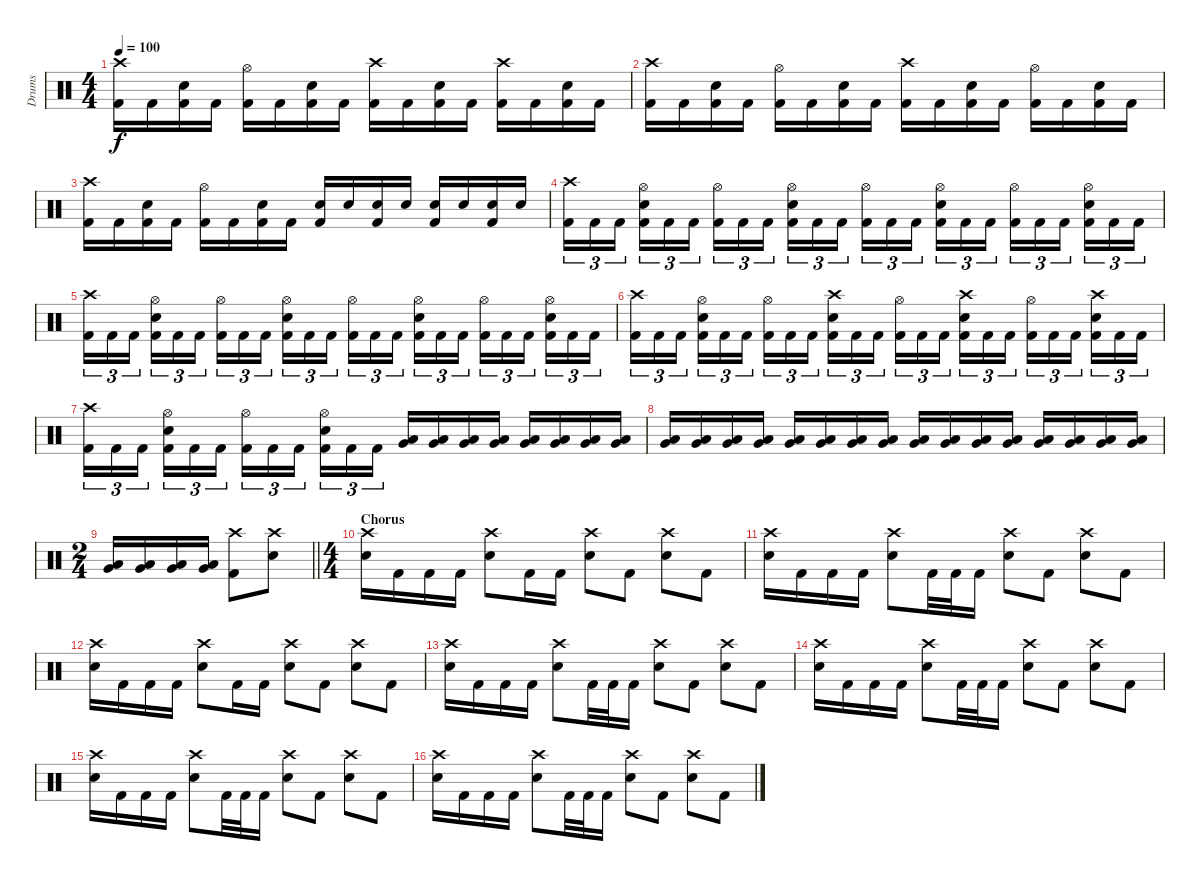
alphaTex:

\track ("Drums" "Drums") {instrument percussion}
\staff {score}
\articulation defaults
\ts (4 4)
\tempo 100
\clef neutral
\ks c
("Crash high (hit)" "Kick (hit) 2").16{dy f} "Kick (hit) 2".16 ("Snare (hit) 2" "Kick (hit) 2").16 "Kick (hit) 2".16 ("Hi-Hat (open)" "Kick (hit) 2").16 "Kick (hit) 2".16 ("Snare (hit) 2" "Kick (hit) 2").16 "Kick (hit) 2".16 ("Crash high (hit)" "Kick (hit) 2").16 "Kick (hit) 2".16 ("Snare (hit) 2" "Kick (hit) 2").16 "Kick (hit) 2".16 ("Crash high (hit)" "Kick (hit) 2").16 "Kick (hit) 2".16 ("Snare (hit) 2" "Kick (hit) 2").16 "Kick (hit) 2".16 |
("Crash high (hit)" "Kick (hit) 2").16 "Kick (hit) 2".16 ("Snare (hit) 2" "Kick (hit) 2").16 "Kick (hit) 2".16 ("Hi-Hat (open)" "Kick (hit) 2").16 "Kick (hit) 2".16 ("Snare (hit) 2" "Kick (hit) 2").16 "Kick (hit) 2".16 ("Crash high (hit)" "Kick (hit) 2").16 "Kick (hit) 2".16 ("Snare (hit) 2" "Kick (hit) 2").16 "Kick (hit) 2".16 ("Hi-Hat (open)" "Kick (hit) 2").16 "Kick (hit) 2".16 ("Snare (hit) 2" "Kick (hit) 2").16 "Kick (hit) 2".16 |
("Crash high (hit)" "Kick (hit) 2").16 "Kick (hit) 2".16 ("Snare (hit) 2" "Kick (hit) 2").16 "Kick (hit) 2".16 ("Hi-Hat (open)" "Kick (hit) 2").16 "Kick (hit) 2".16 ("Snare (hit) 2" "Kick (hit) 2").16 "Kick (hit) 2".16 ("Snare (hit) 2" "Kick (hit) 2").16 "Snare (hit) 2".16 ("Snare (hit) 2" "Kick (hit) 2").16 "Snare (hit) 2".16 ("Snare (hit) 2" "Kick (hit) 2").16 "Snare (hit) 2".16 ("Snare (hit) 2" "Kick (hit) 2").16 "Snare (hit) 2".16 |
("Crash high (hit)" "Kick (hit) 2").16{tu (3 2)} "Kick (hit) 2".16{tu (3 2)} "Kick (hit) 2".16{tu (3 2) beam splitsecondary} ("Hi-Hat (open)" "Snare (hit) 2" "Kick (hit) 2").16{tu (3 2)} "Kick (hit) 2".16{tu (3 2)} "Kick (hit) 2".16{tu (3 2)} ("Hi-Hat (open)" "Kick (hit) 2").16{tu (3 2)} "Kick (hit) 2".16{tu (3 2)} "Kick (hit) 2".16{tu (3 2) beam splitsecondary} ("Hi-Hat (open)" "Snare (hit) 2" "Kick (hit) 2").16{tu (3 2)} "Kick (hit) 2".16{tu (3 2)} "Kick (hit) 2".16{tu (3 2)} ("Hi-Hat (open)" "Kick (hit) 2").16{tu (3 2)} "Kick (hit) 2".16{tu (3 2)} "Kick (hit) 2".16{tu (3 2) beam splitsecondary} ("Hi-Hat (open)" "Snare (hit) 2" "Kick (hit) 2").16{tu (3 2)} "Kick (hit) 2".16{tu (3 2)} "Kick (hit) 2".16{tu (3 2)} ("Hi-Hat (open)" "Kick (hit) 2").16{tu (3 2)} "Kick (hit) 2".16{tu (3 2)} "Kick (hit) 2".16{tu (3 2) beam splitsecondary} ("Hi-Hat (open)" "Snare (hit) 2" "Kick (hit) 2").16{tu (3 2)} "Kick (hit) 2".16{tu (3 2)} "Kick (hit) 2".16{tu (3 2)} |
("Crash high (hit)" "Kick (hit) 2").16{tu (3 2)} "Kick (hit) 2".16{tu (3 2)} "Kick (hit) 2".16{tu (3 2) beam splitsecondary} ("Hi-Hat (open)" "Snare (hit) 2" "Kick (hit) 2").16{tu (3 2)} "Kick (hit) 2".16{tu (3 2)} "Kick (hit) 2".16{tu (3 2)} ("Hi-Hat (open)" "Kick (hit) 2").16{tu (3 2)} "Kick (hit) 2".16{tu (3 2)} "Kick (hit) 2".16{tu (3 2) beam splitsecondary} ("Hi-Hat (open)" "Snare (hit) 2" "Kick (hit) 2").16{tu (3 2)} "Kick (hit) 2".16{tu (3 2)} "Kick (hit) 2".16{tu (3 2)} ("Hi-Hat (open)" "Kick (hit) 2").16{tu (3 2)} "Kick (hit) 2".16{tu (3 2)} "Kick (hit) 2".16{tu (3 2) beam splitsecondary} ("Hi-Hat (open)" "Snare (hit) 2" "Kick (hit) 2").16{tu (3 2)} "Kick (hit) 2".16{tu (3 2)} "Kick (hit) 2".16{tu (3 2)} ("Hi-Hat (open)" "Kick (hit) 2").16{tu (3 2)} "Kick (hit) 2".16{tu (3 2)} "Kick (hit) 2".16{tu (3 2) beam splitsecondary} ("Hi-Hat (open)" "Snare (hit) 2" "Kick (hit) 2").16{tu (3 2)} "Kick (hit) 2".16{tu (3 2)} "Kick (hit) 2".16{tu (3 2)} |
("Crash high (hit)" "Kick (hit) 2").16{tu (3 2)} "Kick (hit) 2".16{tu (3 2)} "Kick (hit) 2".16{tu (3 2) beam splitsecondary} ("Hi-Hat (open)" "Snare (hit) 2" "Kick (hit) 2").16{tu (3 2)} "Kick (hit) 2".16{tu (3 2)} "Kick (hit) 2".16{tu (3 2)} ("Hi-Hat (open)" "Kick (hit) 2").16{tu (3 2)} "Kick (hit) 2".16{tu (3 2)} "Kick (hit) 2".16{tu (3 2) beam splitsecondary} ("Crash high (hit)" "Snare (hit) 2" "Kick (hit) 2").16{tu (3 2)} "Kick (hit) 2".16{tu (3 2)} "Kick (hit) 2".16{tu (3 2)} ("Hi-Hat (open)" "Kick (hit) 2").16{tu (3 2)} "Kick (hit) 2".16{tu (3 2)} "Kick (hit) 2".16{tu (3 2) beam splitsecondary} ("Crash high (hit)" "Snare (hit) 2" "Kick (hit) 2").16{tu (3 2)} "Kick (hit) 2".16{tu (3 2)} "Kick (hit) 2".16{tu (3 2)} ("Hi-Hat (open)" "Kick (hit) 2").16{tu (3 2)} "Kick (hit) 2".16{tu (3 2)} "Kick (hit) 2".16{tu (3 2) beam splitsecondary} ("Crash high (hit)" "Snare (hit) 2" "Kick (hit) 2").16{tu (3 2)} "Kick (hit) 2".16{tu (3 2)} "Kick (hit) 2".16{tu (3 2)} |
("Crash high (hit)" "Kick (hit) 2").16{tu (3 2)} "Kick (hit) 2".16{tu (3 2)} "Kick (hit) 2".16{tu (3 2) beam splitsecondary} ("Hi-Hat (open)" "Snare (hit) 2" "Kick (hit) 2").16{tu (3 2)} "Kick (hit) 2".16{tu (3 2)} "Kick (hit) 2".16{tu (3 2)} ("Hi-Hat (open)" "Kick (hit) 2").16{tu (3 2)} "Kick (hit) 2".16{tu (3 2)} "Kick (hit) 2".16{tu (3 2) beam splitsecondary} ("Hi-Hat (open)" "Snare (hit) 2" "Kick (hit) 2").16{tu (3 2)} "Kick (hit) 2".16{tu (3 2)} "Kick (hit) 2".16{tu (3 2)} ("Low Tom (hit)" "Very Low Tom (hit)").16 ("Low Tom (hit)" "Very Low Tom (hit)").16 ("Low Tom (hit)" "Very Low Tom (hit)").16 ("Low Tom (hit)" "Very Low Tom (hit)").16 ("Low Tom (hit)" "Very Low Tom (hit)").16 ("Low Tom (hit)" "Very Low Tom (hit)").16 ("Low Tom (hit)" "Very Low Tom (hit)").16 ("Low Tom (hit)" "Very Low Tom (hit)").16 |
("Low Tom (hit)" "Very Low Tom (hit)").16 ("Low Tom (hit)" "Very Low Tom (hit)").16 ("Low Tom (hit)" "Very Low Tom (hit)").16 ("Low Tom (hit)" "Very Low Tom (hit)").16 ("Low Tom (hit)" "Very Low Tom (hit)").16 ("Low Tom (hit)" "Very Low Tom (hit)").16 ("Low Tom (hit)" "Very Low Tom (hit)").16 ("Low Tom (hit)" "Very Low Tom (hit)").16 ("Low Tom (hit)" "Very Low Tom (hit)").16 ("Low Tom (hit)" "Very Low Tom (hit)").16 ("Low Tom (hit)" "Very Low Tom (hit)").16 ("Low Tom (hit)" "Very Low Tom (hit)").16 ("Low Tom (hit)" "Very Low Tom (hit)").16 ("Low Tom (hit)" "Very Low Tom (hit)").16 ("Low Tom (hit)" "Very Low Tom (hit)").16 ("Low Tom (hit)" "Very Low Tom (hit)").16 |
\ts (2 4)
\barLineRight lightlight
("Low Tom (hit)" "Very Low Tom (hit)").16 ("Low Tom (hit)" "Very Low Tom (hit)").16 ("Low Tom (hit)" "Very Low Tom (hit)").16 ("Low Tom (hit)" "Very Low Tom (hit)").16 ("Crash high (hit)" "Kick (hit) 2").8 ("Crash high (hit)" "Snare (hit)").8 |
\ts (4 4)
\section ("" "Chorus")
("Crash high (hit)" "Snare (hit) 2").16 "Kick (hit) 2".16 "Kick (hit) 2".16 "Kick (hit) 2".16 ("Crash high (hit)" "Snare (hit) 2").8 "Kick (hit) 2".16 "Kick (hit) 2".16 ("Crash high (hit)" "Snare (hit) 2").8 "Kick (hit) 2".8 ("Crash high (hit)" "Snare (hit) 2").8 "Kick (hit) 2".8 |
("Crash high (hit)" "Snare (hit) 2").16 "Kick (hit) 2".16 "Kick (hit) 2".16 "Kick (hit) 2".16 ("Crash high (hit)" "Snare (hit) 2").8 "Kick (hit) 2".32 "Kick (hit) 2".32 "Kick (hit) 2".16 ("Crash high (hit)" "Snare (hit) 2").8 "Kick (hit) 2".8 ("Crash high (hit)" "Snare (hit) 2").8 "Kick (hit) 2".8 |
("Crash high (hit)" "Snare (hit) 2").16 "Kick (hit) 2".16 "Kick (hit) 2".16 "Kick (hit) 2".16 ("Crash high (hit)" "Snare (hit) 2").8 "Kick (hit) 2".16 "Kick (hit) 2".16 ("Crash high (hit)" "Snare (hit) 2").8 "Kick (hit) 2".8 ("Crash high (hit)" "Snare (hit) 2").8 "Kick (hit) 2".8 |
("Crash high (hit)" "Snare (hit) 2").16 "Kick (hit) 2".16 "Kick (hit) 2".16 "Kick (hit) 2".16 ("Crash high (hit)" "Snare (hit) 2").8 "Kick (hit) 2".32 "Kick (hit) 2".32 "Kick (hit) 2".16 ("Crash high (hit)" "Snare (hit) 2").8 "Kick (hit) 2".8 ("Crash high (hit)" "Snare (hit) 2").8 "Kick (hit) 2".8 |
("Crash high (hit)" "Snare (hit) 2").16 "Kick (hit) 2".16 "Kick (hit) 2".16 "Kick (hit) 2".16 ("Crash high (hit)" "Snare (hit) 2").8 "Kick (hit) 2".32 "Kick (hit) 2".32 "Kick (hit) 2".16 ("Crash high (hit)" "Snare (hit) 2").8 "Kick (hit) 2".8 ("Crash high (hit)" "Snare (hit) 2").8 "Kick (hit) 2".8 |
("Crash high (hit)" "Snare (hit) 2").16 "Kick (hit) 2".16 "Kick (hit) 2".16 "Kick (hit) 2".16 ("Crash high (hit)" "Snare (hit) 2").8 "Kick (hit) 2".32 "Kick (hit) 2".32 "Kick (hit) 2".16 ("Crash high (hit)" "Snare (hit) 2").8 "Kick (hit) 2".8 ("Crash high (hit)" "Snare (hit) 2").8 "Kick (hit) 2".8 |
("Crash high (hit)" "Snare (hit) 2").16 "Kick (hit) 2".16 "Kick (hit) 2".16 "Kick (hit) 2".16 ("Crash high (hit)" "Snare (hit) 2").8 "Kick (hit) 2".32 "Kick (hit) 2".32 "Kick (hit) 2".16 ("Crash high (hit)" "Snare (hit) 2").8 "Kick (hit) 2".8 ("Crash high (hit)" "Snare (hit) 2").8 "Kick (hit) 2".8
